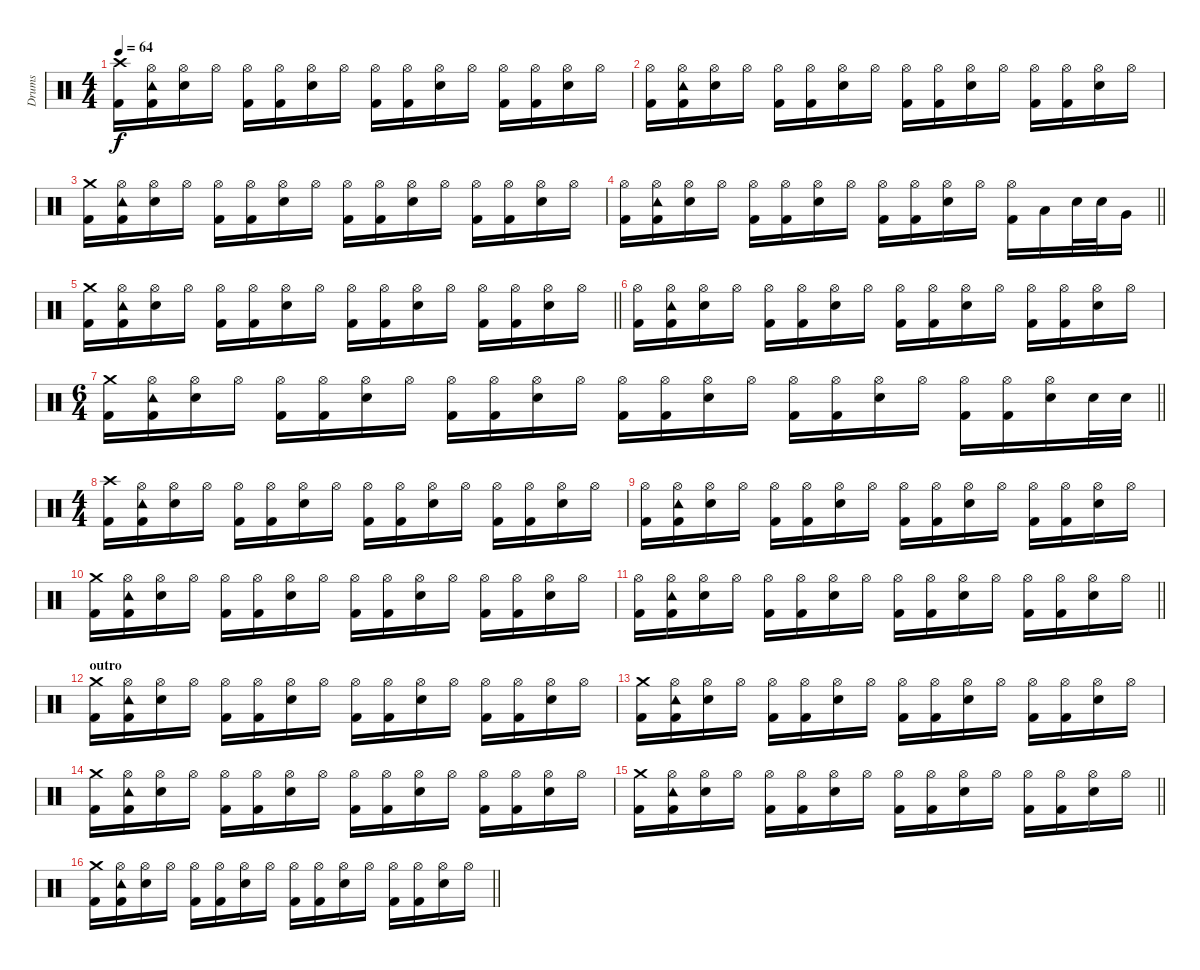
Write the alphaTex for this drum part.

\track ("Drums" "Drums") {instrument percussion}
\staff {score}
\articulation defaults
\ts (4 4)
\tempo 64
\clef neutral
\ks c
("Crash high (hit)" "Kick (hit) 2").16{dy f} ("Hi-Hat (open)" "Tambourine (hit)" "Kick (hit) 2").16 ("Hi-Hat (open)" "Electric Snare (hit)").16 "Hi-Hat (open)".16 ("Hi-Hat (open)" "Kick (hit) 2").16 ("Hi-Hat (open)" "Kick (hit) 2").16 ("Hi-Hat (open)" "Electric Snare (hit)").16 "Hi-Hat (open)".16 ("Hi-Hat (open)" "Kick (hit) 2").16 ("Hi-Hat (open)" "Kick (hit) 2").16 ("Hi-Hat (open)" "Electric Snare (hit)").16 "Hi-Hat (open)".16 ("Hi-Hat (open)" "Kick (hit) 2").16 ("Hi-Hat (open)" "Kick (hit) 2").16 ("Hi-Hat (open)" "Electric Snare (hit)").16 "Hi-Hat (open)".16 |
("Hi-Hat (open)" "Kick (hit) 2").16 ("Hi-Hat (open)" "Tambourine (hit)" "Kick (hit) 2").16 ("Hi-Hat (open)" "Electric Snare (hit)").16 "Hi-Hat (open)".16 ("Hi-Hat (open)" "Kick (hit) 2").16 ("Hi-Hat (open)" "Kick (hit) 2").16 ("Hi-Hat (open)" "Electric Snare (hit)").16 "Hi-Hat (open)".16 ("Hi-Hat (open)" "Kick (hit) 2").16 ("Hi-Hat (open)" "Kick (hit) 2").16 ("Hi-Hat (open)" "Electric Snare (hit)").16 "Hi-Hat (open)".16 ("Hi-Hat (open)" "Kick (hit) 2").16 ("Hi-Hat (open)" "Kick (hit) 2").16 ("Hi-Hat (open)" "Electric Snare (hit)").16 "Hi-Hat (open)".16 |
("Crash medium (hit)" "Kick (hit) 2").16 ("Hi-Hat (open)" "Tambourine (hit)" "Kick (hit) 2").16 ("Hi-Hat (open)" "Electric Snare (hit)").16 "Hi-Hat (open)".16 ("Hi-Hat (open)" "Kick (hit) 2").16 ("Hi-Hat (open)" "Kick (hit) 2").16 ("Hi-Hat (open)" "Electric Snare (hit)").16 "Hi-Hat (open)".16 ("Hi-Hat (open)" "Kick (hit) 2").16 ("Hi-Hat (open)" "Kick (hit) 2").16 ("Hi-Hat (open)" "Electric Snare (hit)").16 "Hi-Hat (open)".16 ("Hi-Hat (open)" "Kick (hit) 2").16 ("Hi-Hat (open)" "Kick (hit) 2").16 ("Hi-Hat (open)" "Electric Snare (hit)").16 "Hi-Hat (open)".16 |
\barLineRight lightlight
("Hi-Hat (open)" "Kick (hit) 2").16 ("Hi-Hat (open)" "Tambourine (hit)" "Kick (hit) 2").16 ("Hi-Hat (open)" "Electric Snare (hit)").16 "Hi-Hat (open)".16 ("Hi-Hat (open)" "Kick (hit) 2").16 ("Hi-Hat (open)" "Kick (hit) 2").16 ("Hi-Hat (open)" "Electric Snare (hit)").16 "Hi-Hat (open)".16 ("Hi-Hat (open)" "Kick (hit) 2").16 ("Hi-Hat (open)" "Kick (hit) 2").16 ("Hi-Hat (open)" "Electric Snare (hit)").16 "Hi-Hat (open)".16 ("Hi-Hat (open)" "Kick (hit) 2").16 "Low Tom (hit)".16 "Electric Snare (hit)".32 "Electric Snare (hit)".32 "Very Low Tom (hit)".16 |
\barLineRight lightlight
("Crash medium (hit)" "Kick (hit) 2").16 ("Hi-Hat (open)" "Tambourine (hit)" "Kick (hit) 2").16 ("Hi-Hat (open)" "Electric Snare (hit)").16 "Hi-Hat (open)".16 ("Hi-Hat (open)" "Kick (hit) 2").16 ("Hi-Hat (open)" "Kick (hit) 2").16 ("Hi-Hat (open)" "Electric Snare (hit)").16 "Hi-Hat (open)".16 ("Hi-Hat (open)" "Kick (hit) 2").16 ("Hi-Hat (open)" "Kick (hit) 2").16 ("Hi-Hat (open)" "Electric Snare (hit)").16 "Hi-Hat (open)".16 ("Hi-Hat (open)" "Kick (hit) 2").16 ("Hi-Hat (open)" "Kick (hit) 2").16 ("Hi-Hat (open)" "Electric Snare (hit)").16 "Hi-Hat (open)".16 |
("Hi-Hat (open)" "Kick (hit) 2").16 ("Hi-Hat (open)" "Tambourine (hit)" "Kick (hit) 2").16 ("Hi-Hat (open)" "Electric Snare (hit)").16 "Hi-Hat (open)".16 ("Hi-Hat (open)" "Kick (hit) 2").16 ("Hi-Hat (open)" "Kick (hit) 2").16 ("Hi-Hat (open)" "Electric Snare (hit)").16 "Hi-Hat (open)".16 ("Hi-Hat (open)" "Kick (hit) 2").16 ("Hi-Hat (open)" "Kick (hit) 2").16 ("Hi-Hat (open)" "Electric Snare (hit)").16 "Hi-Hat (open)".16 ("Hi-Hat (open)" "Kick (hit) 2").16 ("Hi-Hat (open)" "Kick (hit) 2").16 ("Hi-Hat (open)" "Electric Snare (hit)").16 "Hi-Hat (open)".16 |
\ts (6 4)
\barLineRight lightlight
("Crash medium (hit)" "Kick (hit) 2").16 ("Hi-Hat (open)" "Tambourine (hit)" "Kick (hit) 2").16 ("Hi-Hat (open)" "Electric Snare (hit)").16 "Hi-Hat (open)".16 ("Hi-Hat (open)" "Kick (hit) 2").16 ("Hi-Hat (open)" "Kick (hit) 2").16 ("Hi-Hat (open)" "Electric Snare (hit)").16 "Hi-Hat (open)".16 ("Hi-Hat (open)" "Kick (hit) 2").16 ("Hi-Hat (open)" "Kick (hit) 2").16 ("Hi-Hat (open)" "Electric Snare (hit)").16 "Hi-Hat (open)".16 ("Hi-Hat (open)" "Kick (hit) 2").16 ("Hi-Hat (open)" "Kick (hit) 2").16 ("Hi-Hat (open)" "Electric Snare (hit)").16 "Hi-Hat (open)".16 ("Hi-Hat (open)" "Kick (hit) 2").16 ("Hi-Hat (open)" "Kick (hit) 2").16 ("Hi-Hat (open)" "Electric Snare (hit)").16 "Hi-Hat (open)".16 ("Hi-Hat (open)" "Kick (hit) 2").16 ("Hi-Hat (open)" "Kick (hit) 2").16 ("Hi-Hat (open)" "Electric Snare (hit)").16 "Electric Snare (hit)".32 "Electric Snare (hit)".32 |
\ts (4 4)
("Crash high (hit)" "Kick (hit) 2").16 ("Hi-Hat (open)" "Tambourine (hit)" "Kick (hit) 2").16 ("Hi-Hat (open)" "Electric Snare (hit)").16 "Hi-Hat (open)".16 ("Hi-Hat (open)" "Kick (hit) 2").16 ("Hi-Hat (open)" "Kick (hit) 2").16 ("Hi-Hat (open)" "Electric Snare (hit)").16 "Hi-Hat (open)".16 ("Hi-Hat (open)" "Kick (hit) 2").16 ("Hi-Hat (open)" "Kick (hit) 2").16 ("Hi-Hat (open)" "Electric Snare (hit)").16 "Hi-Hat (open)".16 ("Hi-Hat (open)" "Kick (hit) 2").16 ("Hi-Hat (open)" "Kick (hit) 2").16 ("Hi-Hat (open)" "Electric Snare (hit)").16 "Hi-Hat (open)".16 |
("Hi-Hat (open)" "Kick (hit) 2").16 ("Hi-Hat (open)" "Tambourine (hit)" "Kick (hit) 2").16 ("Hi-Hat (open)" "Electric Snare (hit)").16 "Hi-Hat (open)".16 ("Hi-Hat (open)" "Kick (hit) 2").16 ("Hi-Hat (open)" "Kick (hit) 2").16 ("Hi-Hat (open)" "Electric Snare (hit)").16 "Hi-Hat (open)".16 ("Hi-Hat (open)" "Kick (hit) 2").16 ("Hi-Hat (open)" "Kick (hit) 2").16 ("Hi-Hat (open)" "Electric Snare (hit)").16 "Hi-Hat (open)".16 ("Hi-Hat (open)" "Kick (hit) 2").16 ("Hi-Hat (open)" "Kick (hit) 2").16 ("Hi-Hat (open)" "Electric Snare (hit)").16 "Hi-Hat (open)".16 |
("Crash medium (hit)" "Kick (hit) 2").16 ("Hi-Hat (open)" "Tambourine (hit)" "Kick (hit) 2").16 ("Hi-Hat (open)" "Electric Snare (hit)").16 "Hi-Hat (open)".16 ("Hi-Hat (open)" "Kick (hit) 2").16 ("Hi-Hat (open)" "Kick (hit) 2").16 ("Hi-Hat (open)" "Electric Snare (hit)").16 "Hi-Hat (open)".16 ("Hi-Hat (open)" "Kick (hit) 2").16 ("Hi-Hat (open)" "Kick (hit) 2").16 ("Hi-Hat (open)" "Electric Snare (hit)").16 "Hi-Hat (open)".16 ("Hi-Hat (open)" "Kick (hit) 2").16 ("Hi-Hat (open)" "Kick (hit) 2").16 ("Hi-Hat (open)" "Electric Snare (hit)").16 "Hi-Hat (open)".16 |
\barLineRight lightlight
("Hi-Hat (open)" "Kick (hit) 2").16 ("Hi-Hat (open)" "Tambourine (hit)" "Kick (hit) 2").16 ("Hi-Hat (open)" "Electric Snare (hit)").16 "Hi-Hat (open)".16 ("Hi-Hat (open)" "Kick (hit) 2").16 ("Hi-Hat (open)" "Kick (hit) 2").16 ("Hi-Hat (open)" "Electric Snare (hit)").16 "Hi-Hat (open)".16 ("Hi-Hat (open)" "Kick (hit) 2").16 ("Hi-Hat (open)" "Kick (hit) 2").16 ("Hi-Hat (open)" "Electric Snare (hit)").16 "Hi-Hat (open)".16 ("Hi-Hat (open)" "Kick (hit) 2").16 ("Hi-Hat (open)" "Kick (hit) 2").16 ("Hi-Hat (open)" "Electric Snare (hit)").16 "Hi-Hat (open)".16 |
\section ("" "outro")
("Crash medium (hit)" "Kick (hit) 2").16 ("Hi-Hat (open)" "Tambourine (hit)" "Kick (hit) 2").16 ("Hi-Hat (open)" "Electric Snare (hit)").16 "Hi-Hat (open)".16 ("Hi-Hat (open)" "Kick (hit) 2").16 ("Hi-Hat (open)" "Kick (hit) 2").16 ("Hi-Hat (open)" "Electric Snare (hit)").16 "Hi-Hat (open)".16 ("Hi-Hat (open)" "Kick (hit) 2").16 ("Hi-Hat (open)" "Kick (hit) 2").16 ("Hi-Hat (open)" "Electric Snare (hit)").16 "Hi-Hat (open)".16 ("Hi-Hat (open)" "Kick (hit) 2").16 ("Hi-Hat (open)" "Kick (hit) 2").16 ("Hi-Hat (open)" "Electric Snare (hit)").16 "Hi-Hat (open)".16 |
("Crash medium (hit)" "Kick (hit) 2").16 ("Hi-Hat (open)" "Tambourine (hit)" "Kick (hit) 2").16 ("Hi-Hat (open)" "Electric Snare (hit)").16 "Hi-Hat (open)".16 ("Hi-Hat (open)" "Kick (hit) 2").16 ("Hi-Hat (open)" "Kick (hit) 2").16 ("Hi-Hat (open)" "Electric Snare (hit)").16 "Hi-Hat (open)".16 ("Hi-Hat (open)" "Kick (hit) 2").16 ("Hi-Hat (open)" "Kick (hit) 2").16 ("Hi-Hat (open)" "Electric Snare (hit)").16 "Hi-Hat (open)".16 ("Hi-Hat (open)" "Kick (hit) 2").16 ("Hi-Hat (open)" "Kick (hit) 2").16 ("Hi-Hat (open)" "Electric Snare (hit)").16 "Hi-Hat (open)".16 |
("Crash medium (hit)" "Kick (hit) 2").16 ("Hi-Hat (open)" "Tambourine (hit)" "Kick (hit) 2").16 ("Hi-Hat (open)" "Electric Snare (hit)").16 "Hi-Hat (open)".16 ("Hi-Hat (open)" "Kick (hit) 2").16 ("Hi-Hat (open)" "Kick (hit) 2").16 ("Hi-Hat (open)" "Electric Snare (hit)").16 "Hi-Hat (open)".16 ("Hi-Hat (open)" "Kick (hit) 2").16 ("Hi-Hat (open)" "Kick (hit) 2").16 ("Hi-Hat (open)" "Electric Snare (hit)").16 "Hi-Hat (open)".16 ("Hi-Hat (open)" "Kick (hit) 2").16 ("Hi-Hat (open)" "Kick (hit) 2").16 ("Hi-Hat (open)" "Electric Snare (hit)").16 "Hi-Hat (open)".16 |
\barLineRight lightlight
("Crash medium (hit)" "Kick (hit) 2").16 ("Hi-Hat (open)" "Tambourine (hit)" "Kick (hit) 2").16 ("Hi-Hat (open)" "Electric Snare (hit)").16 "Hi-Hat (open)".16 ("Hi-Hat (open)" "Kick (hit) 2").16 ("Hi-Hat (open)" "Kick (hit) 2").16 ("Hi-Hat (open)" "Electric Snare (hit)").16 "Hi-Hat (open)".16 ("Hi-Hat (open)" "Kick (hit) 2").16 ("Hi-Hat (open)" "Kick (hit) 2").16 ("Hi-Hat (open)" "Electric Snare (hit)").16 "Hi-Hat (open)".16 ("Hi-Hat (open)" "Kick (hit) 2").16 ("Hi-Hat (open)" "Kick (hit) 2").16 ("Hi-Hat (open)" "Electric Snare (hit)").16 "Hi-Hat (open)".16 |
\barLineRight lightlight
("Crash medium (hit)" "Kick (hit) 2").16 ("Hi-Hat (open)" "Tambourine (hit)" "Kick (hit) 2").16 ("Hi-Hat (open)" "Electric Snare (hit)").16 "Hi-Hat (open)".16 ("Hi-Hat (open)" "Kick (hit) 2").16 ("Hi-Hat (open)" "Kick (hit) 2").16 ("Hi-Hat (open)" "Electric Snare (hit)").16 "Hi-Hat (open)".16 ("Hi-Hat (open)" "Kick (hit) 2").16 ("Hi-Hat (open)" "Kick (hit) 2").16 ("Hi-Hat (open)" "Electric Snare (hit)").16 "Hi-Hat (open)".16 ("Hi-Hat (open)" "Kick (hit) 2").16 ("Hi-Hat (open)" "Kick (hit) 2").16 ("Hi-Hat (open)" "Electric Snare (hit)").16 "Hi-Hat (open)".16
